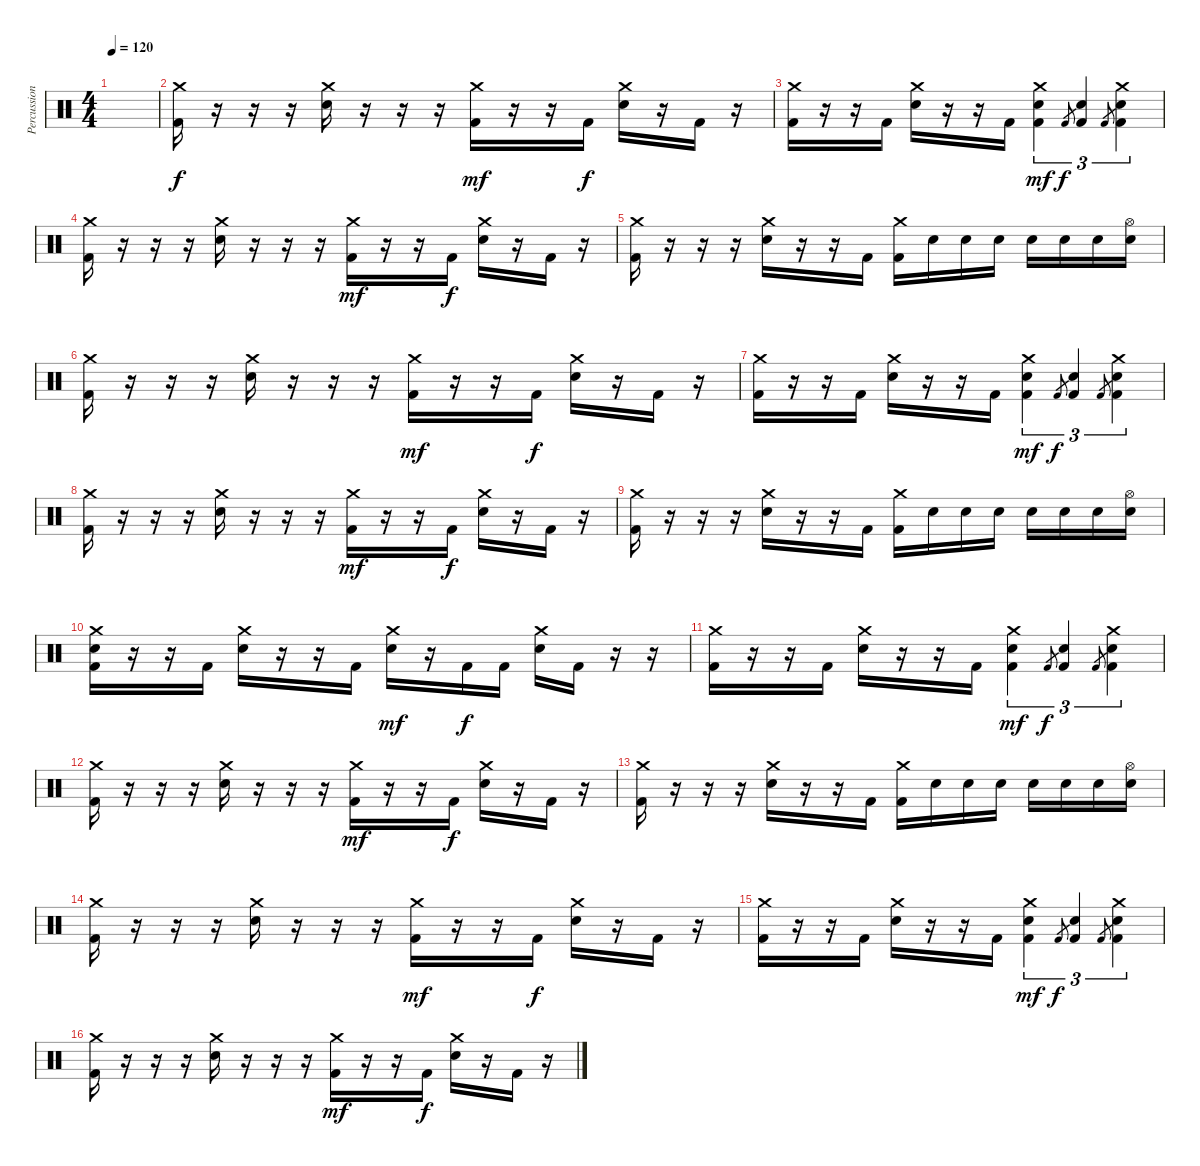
\track ("Percussion" "Percussion") {instrument percussion}
\staff {score}
\articulation defaults
\ts (4 4)
\tempo 120
\clef neutral
\ks c
|
("Crash medium (hit)" "Kick (hit) 2").16 r.16 r.16 r.16 ("Crash medium (hit)" "Electric Snare (hit)").16 r.16 r.16 r.16 ("Crash medium (hit)" "Kick (hit) 2").16{dy mf} r.16 r.16 "Kick (hit) 2".16{dy f} ("Crash medium (hit)" "Electric Snare (hit)").16 r.16 "Kick (hit) 2".16 r.16 |
("Crash medium (hit)" "Kick (hit) 2").16 r.16 r.16 "Kick (hit) 2".16 ("Crash medium (hit)" "Electric Snare (hit)").16 r.16 r.16 "Kick (hit) 2".16 ("Crash medium (hit)" "Kick (hit) 2" "Electric Snare (hit)").4{tu (3 2) dy mf} "Kick (hit) 2".8{gr dy f} ("Kick (hit) 2" "Electric Snare (hit)").4{tu (3 2)} "Kick (hit) 2".8{gr} ("Crash medium (hit)" "Kick (hit) 2" "Electric Snare (hit)").4{tu (3 2)} |
("Crash medium (hit)" "Kick (hit) 2").16 r.16 r.16 r.16 ("Crash medium (hit)" "Electric Snare (hit)").16 r.16 r.16 r.16 ("Crash medium (hit)" "Kick (hit) 2").16{dy mf} r.16 r.16 "Kick (hit) 2".16{dy f} ("Crash medium (hit)" "Electric Snare (hit)").16 r.16 "Kick (hit) 2".16 r.16 |
("Crash medium (hit)" "Kick (hit) 2").16 r.16 r.16 r.16 ("Crash medium (hit)" "Electric Snare (hit)").16 r.16 r.16 "Kick (hit) 2".16 ("Crash medium (hit)" "Kick (hit) 2").16 "Electric Snare (hit)".16 "Electric Snare (hit)".16 "Electric Snare (hit)".16 "Electric Snare (hit)".16 "Electric Snare (hit)".16 "Electric Snare (hit)".16 ("Hi-Hat (open)" "Electric Snare (hit)").16 |
("Crash medium (hit)" "Kick (hit) 2").16 r.16 r.16 r.16 ("Crash medium (hit)" "Electric Snare (hit)").16 r.16 r.16 r.16 ("Crash medium (hit)" "Kick (hit) 2").16{dy mf} r.16 r.16 "Kick (hit) 2".16{dy f} ("Crash medium (hit)" "Electric Snare (hit)").16 r.16 "Kick (hit) 2".16 r.16 |
("Crash medium (hit)" "Kick (hit) 2").16 r.16 r.16 "Kick (hit) 2".16 ("Crash medium (hit)" "Electric Snare (hit)").16 r.16 r.16 "Kick (hit) 2".16 ("Crash medium (hit)" "Kick (hit) 2" "Electric Snare (hit)").4{tu (3 2) dy mf} "Kick (hit) 2".8{gr dy f} ("Kick (hit) 2" "Electric Snare (hit)").4{tu (3 2)} "Kick (hit) 2".8{gr} ("Crash medium (hit)" "Kick (hit) 2" "Electric Snare (hit)").4{tu (3 2)} |
("Crash medium (hit)" "Kick (hit) 2").16 r.16 r.16 r.16 ("Crash medium (hit)" "Electric Snare (hit)").16 r.16 r.16 r.16 ("Crash medium (hit)" "Kick (hit) 2").16{dy mf} r.16 r.16 "Kick (hit) 2".16{dy f} ("Crash medium (hit)" "Electric Snare (hit)").16 r.16 "Kick (hit) 2".16 r.16 |
("Crash medium (hit)" "Kick (hit) 2").16 r.16 r.16 r.16 ("Crash medium (hit)" "Electric Snare (hit)").16 r.16 r.16 "Kick (hit) 2".16 ("Crash medium (hit)" "Kick (hit) 2").16 "Electric Snare (hit)".16 "Electric Snare (hit)".16 "Electric Snare (hit)".16 "Electric Snare (hit)".16 "Electric Snare (hit)".16 "Electric Snare (hit)".16 ("Hi-Hat (open)" "Electric Snare (hit)").16 |
("Crash medium (hit)" "Kick (hit) 2" "Electric Snare (hit)").16 r.16 r.16 "Kick (hit) 2".16 ("Crash medium (hit)" "Electric Snare (hit)").16 r.16 r.16 "Kick (hit) 2".16 ("Crash medium (hit)" "Electric Snare (hit)").16{dy mf} r.16 "Kick (hit) 2".16{dy f} "Kick (hit) 2".16 ("Crash medium (hit)" "Electric Snare (hit)").16 "Kick (hit) 2".16 r.16 r.16 |
("Crash medium (hit)" "Kick (hit) 2").16 r.16 r.16 "Kick (hit) 2".16 ("Crash medium (hit)" "Electric Snare (hit)").16 r.16 r.16 "Kick (hit) 2".16 ("Crash medium (hit)" "Kick (hit) 2" "Electric Snare (hit)").4{tu (3 2) dy mf} "Kick (hit) 2".8{gr dy f} ("Kick (hit) 2" "Electric Snare (hit)").4{tu (3 2)} "Kick (hit) 2".8{gr} ("Crash medium (hit)" "Kick (hit) 2" "Electric Snare (hit)").4{tu (3 2)} |
("Crash medium (hit)" "Kick (hit) 2").16 r.16 r.16 r.16 ("Crash medium (hit)" "Electric Snare (hit)").16 r.16 r.16 r.16 ("Crash medium (hit)" "Kick (hit) 2").16{dy mf} r.16 r.16 "Kick (hit) 2".16{dy f} ("Crash medium (hit)" "Electric Snare (hit)").16 r.16 "Kick (hit) 2".16 r.16 |
("Crash medium (hit)" "Kick (hit) 2").16 r.16 r.16 r.16 ("Crash medium (hit)" "Electric Snare (hit)").16 r.16 r.16 "Kick (hit) 2".16 ("Crash medium (hit)" "Kick (hit) 2").16 "Electric Snare (hit)".16 "Electric Snare (hit)".16 "Electric Snare (hit)".16 "Electric Snare (hit)".16 "Electric Snare (hit)".16 "Electric Snare (hit)".16 ("Hi-Hat (open)" "Electric Snare (hit)").16 |
("Crash medium (hit)" "Kick (hit) 2").16 r.16 r.16 r.16 ("Crash medium (hit)" "Electric Snare (hit)").16 r.16 r.16 r.16 ("Crash medium (hit)" "Kick (hit) 2").16{dy mf} r.16 r.16 "Kick (hit) 2".16{dy f} ("Crash medium (hit)" "Electric Snare (hit)").16 r.16 "Kick (hit) 2".16 r.16 |
("Crash medium (hit)" "Kick (hit) 2").16 r.16 r.16 "Kick (hit) 2".16 ("Crash medium (hit)" "Electric Snare (hit)").16 r.16 r.16 "Kick (hit) 2".16 ("Crash medium (hit)" "Kick (hit) 2" "Electric Snare (hit)").4{tu (3 2) dy mf} "Kick (hit) 2".8{gr dy f} ("Kick (hit) 2" "Electric Snare (hit)").4{tu (3 2)} "Kick (hit) 2".8{gr} ("Crash medium (hit)" "Kick (hit) 2" "Electric Snare (hit)").4{tu (3 2)} |
("Crash medium (hit)" "Kick (hit) 2").16 r.16 r.16 r.16 ("Crash medium (hit)" "Electric Snare (hit)").16 r.16 r.16 r.16 ("Crash medium (hit)" "Kick (hit) 2").16{dy mf} r.16 r.16 "Kick (hit) 2".16{dy f} ("Crash medium (hit)" "Electric Snare (hit)").16 r.16 "Kick (hit) 2".16 r.16
